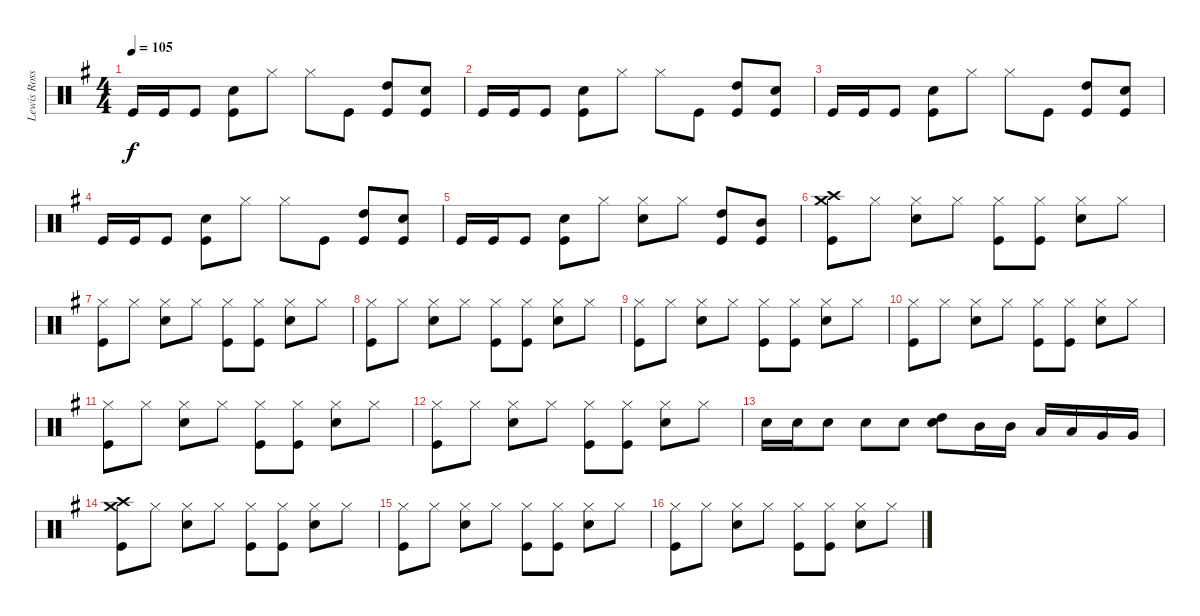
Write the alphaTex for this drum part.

\track ("Lewis Ross Drums" "Lewis Ross") {instrument percussion}
\staff {score}
\articulation defaults
\ts (4 4)
\tempo 105
\clef neutral
\ks g "Kick (hit)".16{dy f} "Kick (hit)".16 "Kick (hit)".8
("Snare (hit) 2" "Kick (hit)").8 "Hi-Hat (closed)".8 "Hi-Hat (closed)".8 "Kick (hit)".8 ("High Tom (hit)" "Kick (hit)").8 ("Snare (hit) 2" "Kick (hit)").8 |
"Kick (hit)".16 "Kick (hit)".16 "Kick (hit)".8 ("Snare (hit) 2" "Kick (hit)").8 "Hi-Hat (closed)".8 "Hi-Hat (closed)".8 "Kick (hit)".8 ("High Tom (hit)" "Kick (hit)").8 ("Snare (hit) 2" "Kick (hit)").8 |
"Kick (hit)".16 "Kick (hit)".16 "Kick (hit)".8 ("Snare (hit) 2" "Kick (hit)").8 "Hi-Hat (closed)".8 "Hi-Hat (closed)".8 "Kick (hit)".8 ("High Tom (hit)" "Kick (hit)").8 ("Snare (hit) 2" "Kick (hit)").8 |
"Kick (hit)".16 "Kick (hit)".16 "Kick (hit)".8 ("Snare (hit) 2" "Kick (hit)").8 "Hi-Hat (closed)".8 "Hi-Hat (closed)".8 "Kick (hit)".8 ("High Tom (hit)" "Kick (hit)").8 ("Snare (hit) 2" "Kick (hit)").8 |
"Kick (hit)".16 "Kick (hit)".16 "Kick (hit)".8 ("Snare (hit) 2" "Kick (hit)").8 "Hi-Hat (closed)".8 ("Hi-Hat (closed)" "Snare (hit) 2").8 "Hi-Hat (closed)".8 ("High Tom (hit)" "Kick (hit)").8 ("Mid Tom (hit)" "Kick (hit)").8 |
("Crash high (hit)" "Crash medium (hit)" "Kick (hit)").8 "Hi-Hat (closed)".8 ("Hi-Hat (closed)" "Snare (hit) 2").8 "Hi-Hat (closed)".8 ("Hi-Hat (closed)" "Kick (hit)").8 ("Hi-Hat (closed)" "Kick (hit)").8 ("Hi-Hat (closed)" "Snare (hit) 2").8 "Hi-Hat (closed)".8 |
("Hi-Hat (closed)" "Kick (hit)").8 "Hi-Hat (closed)".8 ("Hi-Hat (closed)" "Snare (hit) 2").8 "Hi-Hat (closed)".8 ("Hi-Hat (closed)" "Kick (hit)").8 ("Hi-Hat (closed)" "Kick (hit)").8 ("Hi-Hat (closed)" "Snare (hit) 2").8 "Hi-Hat (closed)".8 |
("Hi-Hat (closed)" "Kick (hit)").8 "Hi-Hat (closed)".8 ("Hi-Hat (closed)" "Snare (hit) 2").8 "Hi-Hat (closed)".8 ("Hi-Hat (closed)" "Kick (hit)").8 ("Hi-Hat (closed)" "Kick (hit)").8 ("Hi-Hat (closed)" "Snare (hit) 2").8 "Hi-Hat (closed)".8 |
("Hi-Hat (closed)" "Kick (hit)").8 "Hi-Hat (closed)".8 ("Hi-Hat (closed)" "Snare (hit) 2").8 "Hi-Hat (closed)".8 ("Hi-Hat (closed)" "Kick (hit)").8 ("Hi-Hat (closed)" "Kick (hit)").8 ("Hi-Hat (closed)" "Snare (hit) 2").8 "Hi-Hat (closed)".8 |
("Hi-Hat (closed)" "Kick (hit)").8 "Hi-Hat (closed)".8 ("Hi-Hat (closed)" "Snare (hit) 2").8 "Hi-Hat (closed)".8 ("Hi-Hat (closed)" "Kick (hit)").8 ("Hi-Hat (closed)" "Kick (hit)").8 ("Hi-Hat (closed)" "Snare (hit) 2").8 "Hi-Hat (closed)".8 |
("Hi-Hat (closed)" "Kick (hit)").8 "Hi-Hat (closed)".8 ("Hi-Hat (closed)" "Snare (hit) 2").8 "Hi-Hat (closed)".8 ("Hi-Hat (closed)" "Kick (hit)").8 ("Hi-Hat (closed)" "Kick (hit)").8 ("Hi-Hat (closed)" "Snare (hit) 2").8 "Hi-Hat (closed)".8 |
("Hi-Hat (closed)" "Kick (hit)").8 "Hi-Hat (closed)".8 ("Hi-Hat (closed)" "Snare (hit) 2").8 "Hi-Hat (closed)".8 ("Hi-Hat (closed)" "Kick (hit)").8 ("Hi-Hat (closed)" "Kick (hit)").8 ("Hi-Hat (closed)" "Snare (hit) 2").8 "Hi-Hat (closed)".8 |
"Snare (hit) 2".16 "Snare (hit) 2".16 "Snare (hit) 2".8 "Snare (hit) 2".8 "Snare (hit) 2".8 ("High Tom (hit)" "Snare (hit) 2").8 "Mid Tom (hit)".16 "Mid Tom (hit)".16 "Low Tom (hit)".16 "Low Tom (hit)".16 "Very Low Tom (hit)".16 "Very Low Tom (hit)".16 |
("Crash high (hit)" "Crash medium (hit)" "Kick (hit)").8 "Hi-Hat (closed)".8 ("Hi-Hat (closed)" "Snare (hit) 2").8 "Hi-Hat (closed)".8 ("Hi-Hat (closed)" "Kick (hit)").8 ("Hi-Hat (closed)" "Kick (hit)").8 ("Hi-Hat (closed)" "Snare (hit) 2").8 "Hi-Hat (closed)".8 |
("Hi-Hat (closed)" "Kick (hit)").8 "Hi-Hat (closed)".8 ("Hi-Hat (closed)" "Snare (hit) 2").8 "Hi-Hat (closed)".8 ("Hi-Hat (closed)" "Kick (hit)").8 ("Hi-Hat (closed)" "Kick (hit)").8 ("Hi-Hat (closed)" "Snare (hit) 2").8 "Hi-Hat (closed)".8 |
("Hi-Hat (closed)" "Kick (hit)").8 "Hi-Hat (closed)".8 ("Hi-Hat (closed)" "Snare (hit) 2").8 "Hi-Hat (closed)".8 ("Hi-Hat (closed)" "Kick (hit)").8 ("Hi-Hat (closed)" "Kick (hit)").8 ("Hi-Hat (closed)" "Snare (hit) 2").8 "Hi-Hat (closed)".8
